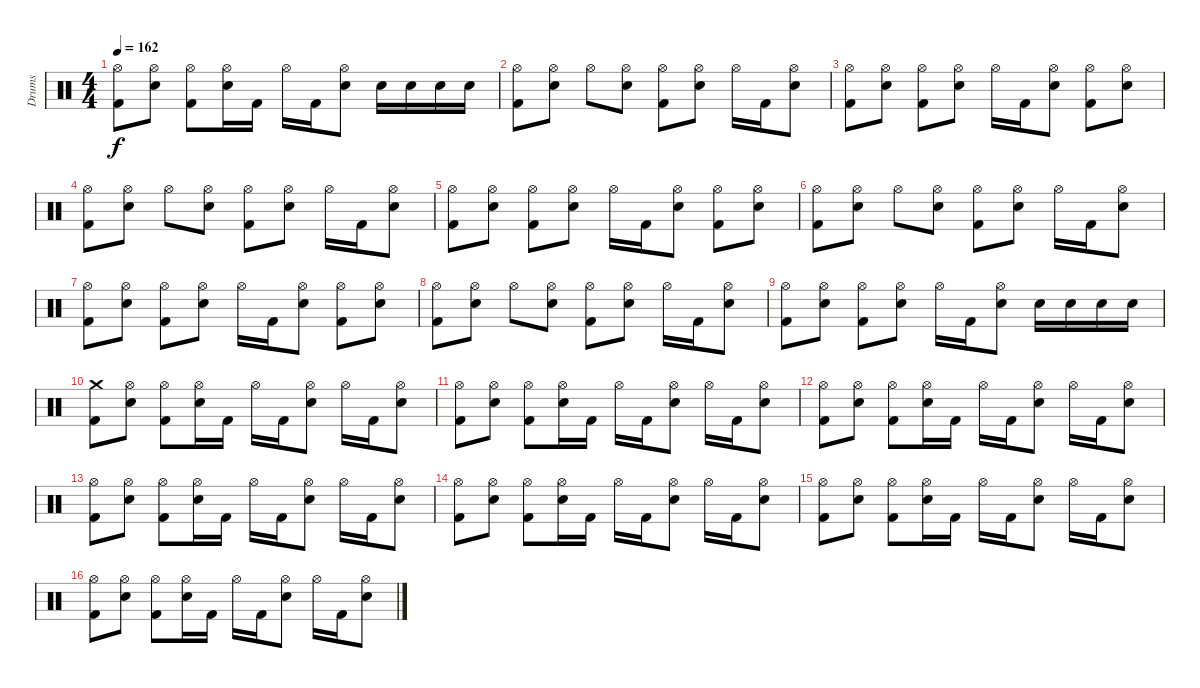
\track ("Drums" "Drums") {instrument percussion}
\staff {score}
\articulation defaults
\ts (4 4)
\tempo 162
\clef neutral
\ks c
("Kick (hit) 2" "Hi-Hat (open)").8{dy f} ("Electric Snare (hit)" "Hi-Hat (open)").8 ("Kick (hit) 2" "Hi-Hat (open)").8 ("Electric Snare (hit)" "Hi-Hat (open)").16 "Kick (hit) 2".16 "Hi-Hat (open)".16 "Kick (hit) 2".16 ("Electric Snare (hit)" "Hi-Hat (open)").8 "Electric Snare (hit)".16 "Electric Snare (hit)".16 "Electric Snare (hit)".16 "Electric Snare (hit)".16 |
\section ("" "")
("Kick (hit) 2" "Hi-Hat (open)").8 ("Electric Snare (hit)" "Hi-Hat (open)").8 "Hi-Hat (open)".8 ("Electric Snare (hit)" "Hi-Hat (open)").8 ("Kick (hit) 2" "Hi-Hat (open)").8 ("Electric Snare (hit)" "Hi-Hat (open)").8 "Hi-Hat (open)".16 "Kick (hit) 2".16 ("Electric Snare (hit)" "Hi-Hat (open)").8 |
("Kick (hit) 2" "Hi-Hat (open)").8 ("Electric Snare (hit)" "Hi-Hat (open)").8 ("Kick (hit) 2" "Hi-Hat (open)").8 ("Electric Snare (hit)" "Hi-Hat (open)").8 "Hi-Hat (open)".16 "Kick (hit) 2".16 ("Electric Snare (hit)" "Hi-Hat (open)").8 ("Kick (hit) 2" "Hi-Hat (open)").8 ("Electric Snare (hit)" "Hi-Hat (open)").8 |
("Kick (hit) 2" "Hi-Hat (open)").8 ("Electric Snare (hit)" "Hi-Hat (open)").8 "Hi-Hat (open)".8 ("Electric Snare (hit)" "Hi-Hat (open)").8 ("Kick (hit) 2" "Hi-Hat (open)").8 ("Electric Snare (hit)" "Hi-Hat (open)").8 "Hi-Hat (open)".16 "Kick (hit) 2".16 ("Electric Snare (hit)" "Hi-Hat (open)").8 |
("Kick (hit) 2" "Hi-Hat (open)").8 ("Electric Snare (hit)" "Hi-Hat (open)").8 ("Kick (hit) 2" "Hi-Hat (open)").8 ("Electric Snare (hit)" "Hi-Hat (open)").8 "Hi-Hat (open)".16 "Kick (hit) 2".16 ("Electric Snare (hit)" "Hi-Hat (open)").8 ("Kick (hit) 2" "Hi-Hat (open)").8 ("Electric Snare (hit)" "Hi-Hat (open)").8 |
("Kick (hit) 2" "Hi-Hat (open)").8 ("Electric Snare (hit)" "Hi-Hat (open)").8 "Hi-Hat (open)".8 ("Electric Snare (hit)" "Hi-Hat (open)").8 ("Kick (hit) 2" "Hi-Hat (open)").8 ("Electric Snare (hit)" "Hi-Hat (open)").8 "Hi-Hat (open)".16 "Kick (hit) 2".16 ("Electric Snare (hit)" "Hi-Hat (open)").8 |
("Kick (hit) 2" "Hi-Hat (open)").8 ("Electric Snare (hit)" "Hi-Hat (open)").8 ("Kick (hit) 2" "Hi-Hat (open)").8 ("Electric Snare (hit)" "Hi-Hat (open)").8 "Hi-Hat (open)".16 "Kick (hit) 2".16 ("Electric Snare (hit)" "Hi-Hat (open)").8 ("Kick (hit) 2" "Hi-Hat (open)").8 ("Electric Snare (hit)" "Hi-Hat (open)").8 |
("Kick (hit) 2" "Hi-Hat (open)").8 ("Electric Snare (hit)" "Hi-Hat (open)").8 "Hi-Hat (open)".8 ("Electric Snare (hit)" "Hi-Hat (open)").8 ("Kick (hit) 2" "Hi-Hat (open)").8 ("Electric Snare (hit)" "Hi-Hat (open)").8 "Hi-Hat (open)".16 "Kick (hit) 2".16 ("Electric Snare (hit)" "Hi-Hat (open)").8 |
("Kick (hit) 2" "Hi-Hat (open)").8 ("Electric Snare (hit)" "Hi-Hat (open)").8 ("Kick (hit) 2" "Hi-Hat (open)").8 ("Electric Snare (hit)" "Hi-Hat (open)").8 "Hi-Hat (open)".16 "Kick (hit) 2".16 ("Electric Snare (hit)" "Hi-Hat (open)").8 "Electric Snare (hit)".16 "Electric Snare (hit)".16 "Electric Snare (hit)".16 "Electric Snare (hit)".16 |
\section ("" "")
("Kick (hit) 2" "Crash medium (hit)").8 ("Electric Snare (hit)" "Hi-Hat (open)").8 ("Kick (hit) 2" "Hi-Hat (open)").8 ("Electric Snare (hit)" "Hi-Hat (open)").16 "Kick (hit) 2".16 "Hi-Hat (open)".16 "Kick (hit) 2".16 ("Electric Snare (hit)" "Hi-Hat (open)").8 "Hi-Hat (open)".16 "Kick (hit) 2".16 ("Electric Snare (hit)" "Hi-Hat (open)").8 |
("Kick (hit) 2" "Hi-Hat (open)").8 ("Electric Snare (hit)" "Hi-Hat (open)").8 ("Kick (hit) 2" "Hi-Hat (open)").8 ("Electric Snare (hit)" "Hi-Hat (open)").16 "Kick (hit) 2".16 "Hi-Hat (open)".16 "Kick (hit) 2".16 ("Electric Snare (hit)" "Hi-Hat (open)").8 "Hi-Hat (open)".16 "Kick (hit) 2".16 ("Electric Snare (hit)" "Hi-Hat (open)").8 |
("Kick (hit) 2" "Hi-Hat (open)").8 ("Electric Snare (hit)" "Hi-Hat (open)").8 ("Kick (hit) 2" "Hi-Hat (open)").8 ("Electric Snare (hit)" "Hi-Hat (open)").16 "Kick (hit) 2".16 "Hi-Hat (open)".16 "Kick (hit) 2".16 ("Electric Snare (hit)" "Hi-Hat (open)").8 "Hi-Hat (open)".16 "Kick (hit) 2".16 ("Electric Snare (hit)" "Hi-Hat (open)").8 |
("Kick (hit) 2" "Hi-Hat (open)").8 ("Electric Snare (hit)" "Hi-Hat (open)").8 ("Kick (hit) 2" "Hi-Hat (open)").8 ("Electric Snare (hit)" "Hi-Hat (open)").16 "Kick (hit) 2".16 "Hi-Hat (open)".16 "Kick (hit) 2".16 ("Electric Snare (hit)" "Hi-Hat (open)").8 "Hi-Hat (open)".16 "Kick (hit) 2".16 ("Electric Snare (hit)" "Hi-Hat (open)").8 |
("Kick (hit) 2" "Hi-Hat (open)").8 ("Electric Snare (hit)" "Hi-Hat (open)").8 ("Kick (hit) 2" "Hi-Hat (open)").8 ("Electric Snare (hit)" "Hi-Hat (open)").16 "Kick (hit) 2".16 "Hi-Hat (open)".16 "Kick (hit) 2".16 ("Electric Snare (hit)" "Hi-Hat (open)").8 "Hi-Hat (open)".16 "Kick (hit) 2".16 ("Electric Snare (hit)" "Hi-Hat (open)").8 |
("Kick (hit) 2" "Hi-Hat (open)").8 ("Electric Snare (hit)" "Hi-Hat (open)").8 ("Kick (hit) 2" "Hi-Hat (open)").8 ("Electric Snare (hit)" "Hi-Hat (open)").16 "Kick (hit) 2".16 "Hi-Hat (open)".16 "Kick (hit) 2".16 ("Electric Snare (hit)" "Hi-Hat (open)").8 "Hi-Hat (open)".16 "Kick (hit) 2".16 ("Electric Snare (hit)" "Hi-Hat (open)").8 |
("Kick (hit) 2" "Hi-Hat (open)").8 ("Electric Snare (hit)" "Hi-Hat (open)").8 ("Kick (hit) 2" "Hi-Hat (open)").8 ("Electric Snare (hit)" "Hi-Hat (open)").16 "Kick (hit) 2".16 "Hi-Hat (open)".16 "Kick (hit) 2".16 ("Electric Snare (hit)" "Hi-Hat (open)").8 "Hi-Hat (open)".16 "Kick (hit) 2".16 ("Electric Snare (hit)" "Hi-Hat (open)").8
